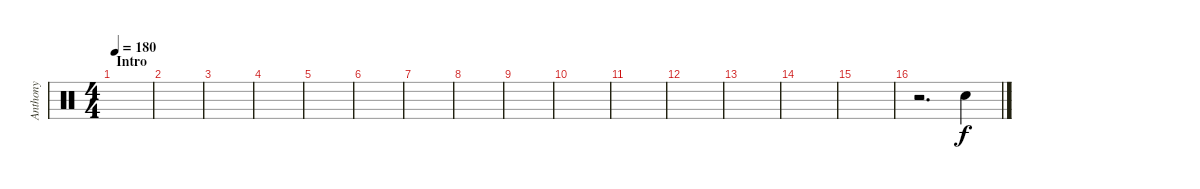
\track ("Anthony" "Anthony") {instrument percussion}
\staff {score}
\articulation defaults
\ts (4 4)
\section ("" "Intro")
\tempo 180
\clef neutral
\ks c
|
|
|
|
|
|
|
|
|
|
|
|
|
|
|
r.2{d} "Electric Snare (hit)".4
